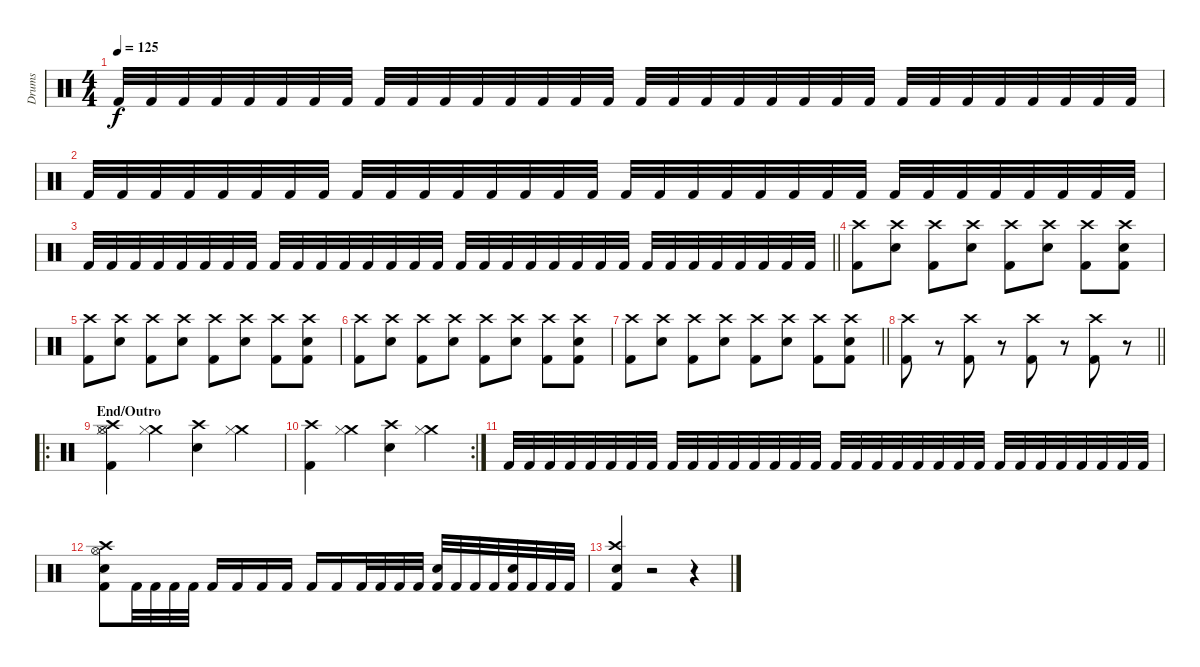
\track ("Drums" "Drums") {instrument percussion}
\staff {score}
\articulation defaults
\ts (4 4)
\tempo 125
\clef neutral
\ks c "Kick (hit) 2".32{dy f} "Kick (hit) 2".32 "Kick (hit) 2".32 "Kick (hit) 2".32 "Kick (hit) 2".32 "Kick (hit) 2".32 "Kick (hit) 2".32 "Kick (hit) 2".32 "Kick (hit) 2".32 "Kick (hit) 2".32 "Kick (hit) 2".32 "Kick (hit) 2".32 "Kick (hit) 2".32 "Kick (hit) 2".32 "Kick (hit) 2".32 "Kick (hit) 2".32 "Kick (hit) 2".32 "Kick (hit) 2".32 "Kick (hit) 2".32 "Kick (hit) 2".32 "Kick (hit) 2".32 "Kick (hit) 2".32 "Kick (hit) 2".32 "Kick (hit) 2".32 "Kick (hit) 2".32 "Kick (hit) 2".32 "Kick (hit) 2".32 "Kick (hit) 2".32 "Kick (hit) 2".32 "Kick (hit) 2".32 "Kick (hit) 2".32 "Kick (hit) 2".32
|
"Kick (hit) 2".32 "Kick (hit) 2".32 "Kick (hit) 2".32 "Kick (hit) 2".32 "Kick (hit) 2".32 "Kick (hit) 2".32 "Kick (hit) 2".32 "Kick (hit) 2".32 "Kick (hit) 2".32 "Kick (hit) 2".32 "Kick (hit) 2".32 "Kick (hit) 2".32 "Kick (hit) 2".32 "Kick (hit) 2".32 "Kick (hit) 2".32 "Kick (hit) 2".32 "Kick (hit) 2".32 "Kick (hit) 2".32 "Kick (hit) 2".32 "Kick (hit) 2".32 "Kick (hit) 2".32 "Kick (hit) 2".32 "Kick (hit) 2".32 "Kick (hit) 2".32 "Kick (hit) 2".32 "Kick (hit) 2".32 "Kick (hit) 2".32 "Kick (hit) 2".32 "Kick (hit) 2".32 "Kick (hit) 2".32 "Kick (hit) 2".32 "Kick (hit) 2".32 |
\barLineRight lightlight "Kick (hit) 2".32 "Kick (hit) 2".32 "Kick (hit) 2".32 "Kick (hit) 2".32 "Kick (hit) 2".32 "Kick (hit) 2".32 "Kick (hit) 2".32 "Kick (hit) 2".32 "Kick (hit) 2".32 "Kick (hit) 2".32 "Kick (hit) 2".32 "Kick (hit) 2".32 "Kick (hit) 2".32 "Kick (hit) 2".32 "Kick (hit) 2".32 "Kick (hit) 2".32 "Kick (hit) 2".32 "Kick (hit) 2".32 "Kick (hit) 2".32 "Kick (hit) 2".32 "Kick (hit) 2".32 "Kick (hit) 2".32 "Kick (hit) 2".32 "Kick (hit) 2".32 "Kick (hit) 2".32 "Kick (hit) 2".32 "Kick (hit) 2".32 "Kick (hit) 2".32 "Kick (hit) 2".32 "Kick (hit) 2".32 "Kick (hit) 2".32 "Kick (hit) 2".32
|
("Crash high (hit)" "Kick (hit) 2").8{volume 13} ("Crash high (hit)" "Snare (hit) 2").8 ("Crash high (hit)" "Kick (hit) 2").8 ("Crash high (hit)" "Snare (hit) 2").8 ("Crash high (hit)" "Kick (hit) 2").8 ("Crash high (hit)" "Snare (hit) 2").8 ("Crash high (hit)" "Kick (hit) 2").8 ("Crash high (hit)" "Snare (hit) 2" "Kick (hit) 2").8 |
("Crash high (hit)" "Kick (hit) 2").8{volume 13} ("Crash high (hit)" "Snare (hit) 2").8 ("Crash high (hit)" "Kick (hit) 2").8 ("Crash high (hit)" "Snare (hit) 2").8 ("Crash high (hit)" "Kick (hit) 2").8 ("Crash high (hit)" "Snare (hit) 2").8 ("Crash high (hit)" "Kick (hit) 2").8 ("Crash high (hit)" "Snare (hit) 2" "Kick (hit) 2").8 |
("Crash high (hit)" "Kick (hit) 2").8{volume 13} ("Crash high (hit)" "Snare (hit) 2").8 ("Crash high (hit)" "Kick (hit) 2").8 ("Crash high (hit)" "Snare (hit) 2").8 ("Crash high (hit)" "Kick (hit) 2").8 ("Crash high (hit)" "Snare (hit) 2").8 ("Crash high (hit)" "Kick (hit) 2").8 ("Crash high (hit)" "Snare (hit) 2" "Kick (hit) 2").8 |
\barLineRight lightlight
("Crash high (hit)" "Kick (hit) 2").8{volume 13} ("Crash high (hit)" "Snare (hit) 2").8 ("Crash high (hit)" "Kick (hit) 2").8 ("Crash high (hit)" "Snare (hit) 2").8 ("Crash high (hit)" "Kick (hit) 2").8 ("Crash high (hit)" "Snare (hit) 2").8 ("Crash high (hit)" "Kick (hit) 2").8 ("Crash high (hit)" "Snare (hit) 2" "Kick (hit) 2").8 |
\barLineRight lightlight
("Crash high (hit)" "Kick (hit) 2").8 r.8 ("Crash high (hit)" "Kick (hit) 2").8 r.8 ("Crash high (hit)" "Kick (hit) 2").8 r.8 ("Crash high (hit)" "Kick (hit) 2").8 r.8 |
\ro
\section ("" "End/Outro")
("Crash high (hit)" "Hi-Hat (closed)" "Hi-Hat (open)" "Kick (hit) 2").4 ("Crash medium (hit)" "Hi-Hat (closed)").4 ("Crash high (hit)" "Snare (hit) 2").4 ("Crash medium (hit)" "Hi-Hat (closed)").4 |
\rc 2
("Crash high (hit)" "Kick (hit) 2").4 ("Crash medium (hit)" "Hi-Hat (closed)").4 ("Crash high (hit)" "Snare (hit) 2").4 ("Crash medium (hit)" "Hi-Hat (closed)").4 |
"Kick (hit) 2".32 "Kick (hit) 2".32 "Kick (hit) 2".32 "Kick (hit) 2".32 "Kick (hit) 2".32 "Kick (hit) 2".32 "Kick (hit) 2".32 "Kick (hit) 2".32 "Kick (hit) 2".32 "Kick (hit) 2".32 "Kick (hit) 2".32 "Kick (hit) 2".32 "Kick (hit) 2".32 "Kick (hit) 2".32 "Kick (hit) 2".32 "Kick (hit) 2".32 "Kick (hit) 2".32 "Kick (hit) 2".32 "Kick (hit) 2".32 "Kick (hit) 2".32 "Kick (hit) 2".32 "Kick (hit) 2".32 "Kick (hit) 2".32 "Kick (hit) 2".32 "Kick (hit) 2".32 "Kick (hit) 2".32 "Kick (hit) 2".32 "Kick (hit) 2".32 "Kick (hit) 2".32 "Kick (hit) 2".32 "Kick (hit) 2".32 "Kick (hit) 2".32 |
("Hi-Hat (open)" "Crash high (hit)" "Snare (hit) 2" "Kick (hit) 2").8 "Kick (hit) 2".32 "Kick (hit) 2".32 "Kick (hit) 2".32 "Kick (hit) 2".32 "Kick (hit) 2".16 "Kick (hit) 2".16 "Kick (hit) 2".16 "Kick (hit) 2".16 "Kick (hit) 2".16 "Kick (hit) 2".16 "Kick (hit) 2".32 "Kick (hit) 2".32 "Kick (hit) 2".32 "Kick (hit) 2".32 ("Electric Snare (hit)" "Kick (hit) 2").32 "Kick (hit) 2".32 "Kick (hit) 2".32 "Kick (hit) 2".32 ("Electric Snare (hit)" "Kick (hit) 2").32 "Kick (hit) 2".32 "Kick (hit) 2".32 "Kick (hit) 2".32 |
("Crash high (hit)" "Snare (hit) 2" "Kick (hit) 2").4 r.2 r.4
